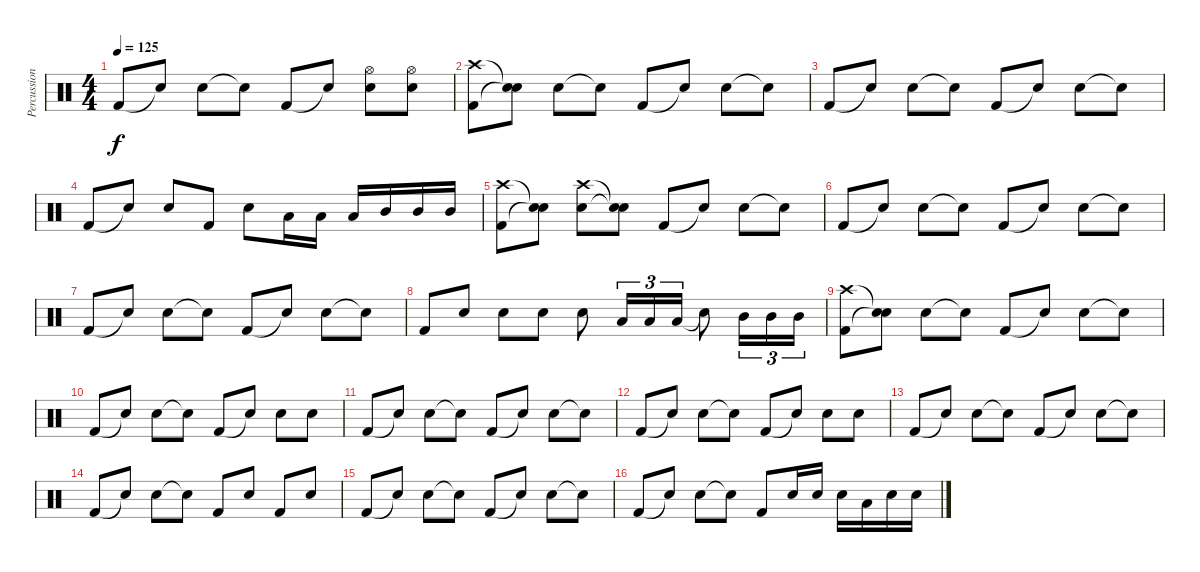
\track ("Percussion" "Percussion") {instrument percussion}
\staff {score}
\articulation defaults
\ts (4 4)
\tempo 125
\clef neutral
\ks c "Kick (hit) 2".8{dy f} "Snare (hit)"{t}.8 "Snare (hit) 2".8 "Snare (hit)"{t}.8 "Kick (hit) 2".8 "Snare (hit)"{t}.8
("Snare (hit) 2" "Hi-Hat (open)").8 ("Snare (hit) 2" "Hi-Hat (open)").8 |
("Kick (hit) 2" "Crash high (hit)").8 ("Snare (hit)"{t} "Snare (hit)"{t}).8 "Snare (hit) 2".8 "Snare (hit)"{t}.8 "Kick (hit) 2".8 "Snare (hit)"{t}.8 "Snare (hit) 2".8 "Snare (hit)"{t}.8 |
"Kick (hit) 2".8 "Snare (hit)"{t}.8 "Snare (hit) 2".8 "Snare (hit)"{t}.8 "Kick (hit) 2".8 "Snare (hit)"{t}.8 "Snare (hit) 2".8 "Snare (hit)"{t}.8 |
"Kick (hit) 2".8 "Snare (hit)"{t}.8 "Snare (hit) 2".8 "Kick (hit) 2".8 "Snare (hit) 2".8 "Low Tom (hit)".16 "Low Tom (hit)".16 "Low Tom (hit)".16 "Mid Tom (hit)".16 "Mid Tom (hit)".16 "Mid Tom (hit)".16 |
("Kick (hit) 2" "Crash high (hit)").8 ("Snare (hit)"{t} "Snare (hit)"{t}).8 ("Snare (hit) 2" "Crash high (hit)").8 ("Snare (hit)"{t} "Snare (hit)"{t}).8 "Kick (hit) 2".8 "Snare (hit)"{t}.8 "Snare (hit) 2".8 "Snare (hit)"{t}.8 |
"Kick (hit) 2".8 "Snare (hit)"{t}.8 "Snare (hit) 2".8 "Snare (hit)"{t}.8 "Kick (hit) 2".8 "Snare (hit)"{t}.8 "Snare (hit) 2".8 "Snare (hit)"{t}.8 |
"Kick (hit) 2".8 "Snare (hit)"{t}.8 "Snare (hit) 2".8 "Snare (hit)"{t}.8 "Kick (hit) 2".8 "Snare (hit)"{t}.8 "Snare (hit) 2".8 "Snare (hit)"{t}.8 |
"Kick (hit) 2".8 "Snare (hit) 2".8 "Snare (hit) 2".8 "Snare (hit) 2".8 "Snare (hit) 2".8 "Low Tom (hit)".16{tu (3 2)} "Low Tom (hit)".16{tu (3 2)} "Low Tom (hit)".16{tu (3 2)} "Snare (hit)"{t}.8 "Mid Tom (hit)".16{tu (3 2)} "Mid Tom (hit)".16{tu (3 2)} "Mid Tom (hit)".16{tu (3 2)} |
("Kick (hit) 2" "Crash high (hit)").8 ("Snare (hit)"{t} "Snare (hit)"{t}).8 "Snare (hit) 2".8 "Snare (hit)"{t}.8 "Kick (hit) 2".8 "Snare (hit)"{t}.8 "Snare (hit) 2".8 "Snare (hit)"{t}.8 |
"Kick (hit) 2".8 "Snare (hit)"{t}.8 "Snare (hit) 2".8 "Snare (hit)"{t}.8 "Kick (hit) 2".8 "Snare (hit)"{t}.8 "Snare (hit) 2".8 "Snare (hit) 2".8 |
"Kick (hit) 2".8 "Snare (hit)"{t}.8 "Snare (hit) 2".8 "Snare (hit)"{t}.8 "Kick (hit) 2".8 "Snare (hit)"{t}.8 "Snare (hit) 2".8 "Snare (hit)"{t}.8 |
"Kick (hit) 2".8 "Snare (hit)"{t}.8 "Snare (hit) 2".8 "Snare (hit)"{t}.8 "Kick (hit) 2".8 "Snare (hit)"{t}.8 "Snare (hit) 2".8 "Snare (hit) 2".8 |
"Kick (hit) 2".8 "Snare (hit)"{t}.8 "Snare (hit) 2".8 "Snare (hit)"{t}.8 "Kick (hit) 2".8 "Snare (hit)"{t}.8 "Snare (hit) 2".8 "Snare (hit)"{t}.8 |
"Kick (hit) 2".8 "Snare (hit)"{t}.8 "Snare (hit) 2".8 "Snare (hit)"{t}.8 "Kick (hit) 2".8 "Snare (hit) 2".8 "Kick (hit) 2".8 "Snare (hit) 2".8 |
"Kick (hit) 2".8 "Snare (hit)"{t}.8 "Snare (hit) 2".8 "Snare (hit)"{t}.8 "Kick (hit) 2".8 "Snare (hit)"{t}.8 "Snare (hit) 2".8 "Snare (hit)"{t}.8 |
"Kick (hit) 2".8 "Snare (hit)"{t}.8 "Snare (hit) 2".8 "Snare (hit)"{t}.8 "Kick (hit) 2".8 "Snare (hit) 2".16 "Snare (hit) 2".16 "Snare (hit) 2".16 "Low Tom (hit)".16 "Snare (hit) 2".16 "Snare (hit) 2".16
